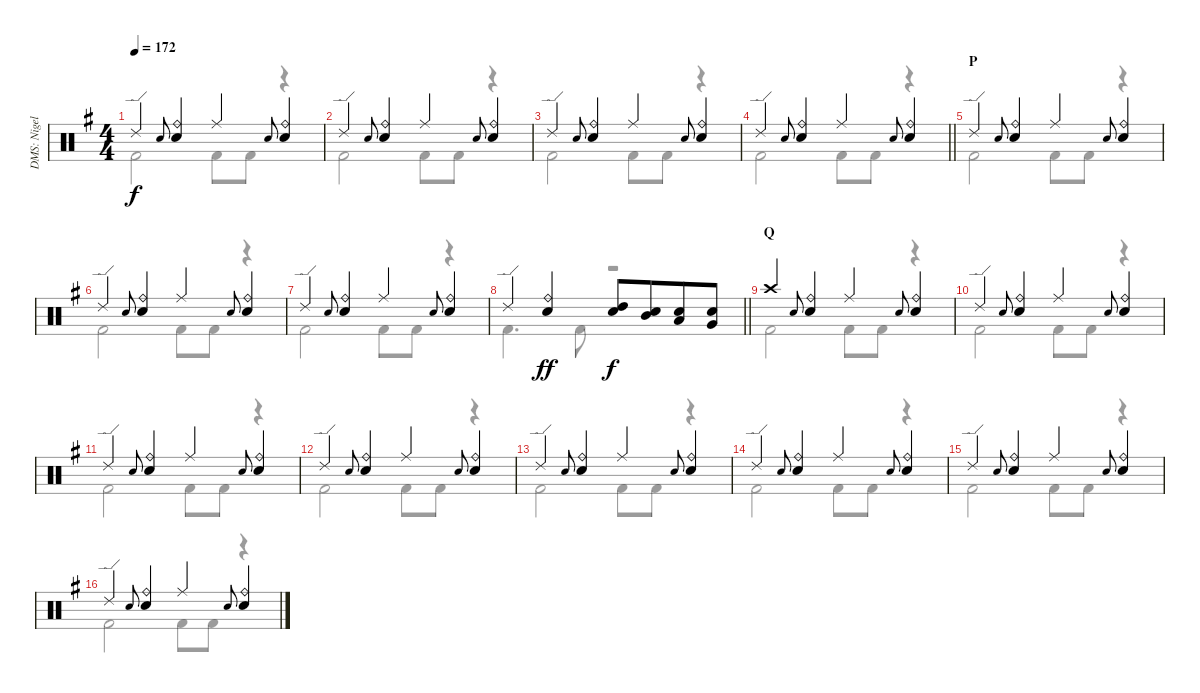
\track ("DMS: Nigel Olsson" "DMS: Nigel") {instrument percussion}
\staff {score}
\articulation defaults
\voice
\ts (4 4)
\tempo 172
\clef neutral
\ks g "Ride (edge) 2".4{dy f} "Snare (hit) 2".8{gr onbeat}
("Ride (bell)" "Electric Snare (hit)").4 "Ride (middle)".4 "Snare (hit) 2".8{gr onbeat} ("Ride (bell)" "Electric Snare (hit)").4 |
"Ride (edge) 2".4 "Snare (hit) 2".8{gr onbeat} ("Ride (bell)" "Electric Snare (hit)").4 "Ride (middle)".4 "Snare (hit) 2".8{gr onbeat} ("Ride (bell)" "Electric Snare (hit)").4 |
"Ride (edge) 2".4 "Snare (hit) 2".8{gr onbeat} ("Ride (bell)" "Electric Snare (hit)").4 "Ride (middle)".4 "Snare (hit) 2".8{gr onbeat} ("Ride (bell)" "Electric Snare (hit)").4 |
\barLineRight lightlight "Ride (edge) 2".4 "Snare (hit) 2".8{gr onbeat}
("Ride (bell)" "Electric Snare (hit)").4 "Ride (middle)".4 "Snare (hit) 2".8{gr onbeat} ("Ride (bell)" "Electric Snare (hit)").4 |
\section ("" "P")
"Ride (edge) 2".4 "Snare (hit) 2".8{gr onbeat} ("Ride (bell)" "Electric Snare (hit)").4 "Ride (middle)".4 "Snare (hit) 2".8{gr onbeat} ("Ride (bell)" "Electric Snare (hit)").4 |
"Ride (edge) 2".4 "Snare (hit) 2".8{gr onbeat} ("Ride (bell)" "Electric Snare (hit)").4 "Ride (middle)".4 "Snare (hit) 2".8{gr onbeat} ("Ride (bell)" "Electric Snare (hit)").4 |
"Ride (edge) 2".4 "Snare (hit) 2".8{gr onbeat} ("Ride (bell)" "Electric Snare (hit)").4 "Ride (middle)".4 "Snare (hit) 2".8{gr onbeat} ("Ride (bell)" "Electric Snare (hit)").4 |
\barLineRight lightlight "Ride (edge) 2".4
("Ride (bell)" "Electric Snare (hit)").4{dy ff} ("Electric Snare (hit)" "High Tom (hit)").8{dy f} ("Electric Snare (hit)" "Mid Tom (hit)").8{beam merge} ("Electric Snare (hit)" "Low Tom (hit)").8 ("Electric Snare (hit)" "Very Low Tom (hit)").8 |
\section ("" "Q")
"Crash high (hit)".4 "Snare (hit) 2".8{gr onbeat} ("Ride (bell)" "Electric Snare (hit)").4 "Ride (middle)".4 "Snare (hit) 2".8{gr onbeat} ("Ride (bell)" "Electric Snare (hit)").4 |
"Ride (edge) 2".4 "Snare (hit) 2".8{gr onbeat} ("Ride (bell)" "Electric Snare (hit)").4 "Ride (middle)".4 "Snare (hit) 2".8{gr onbeat} ("Ride (bell)" "Electric Snare (hit)").4 |
"Ride (edge) 2".4 "Snare (hit) 2".8{gr onbeat} ("Ride (bell)" "Electric Snare (hit)").4 "Ride (middle)".4 "Snare (hit) 2".8{gr onbeat} ("Ride (bell)" "Electric Snare (hit)").4 |
"Ride (edge) 2".4 "Snare (hit) 2".8{gr onbeat} ("Ride (bell)" "Electric Snare (hit)").4 "Ride (middle)".4 "Snare (hit) 2".8{gr onbeat} ("Ride (bell)" "Electric Snare (hit)").4 |
"Ride (edge) 2".4 "Snare (hit) 2".8{gr onbeat} ("Ride (bell)" "Electric Snare (hit)").4 "Ride (middle)".4 "Snare (hit) 2".8{gr onbeat} ("Ride (bell)" "Electric Snare (hit)").4 |
"Ride (edge) 2".4 "Snare (hit) 2".8{gr onbeat} ("Ride (bell)" "Electric Snare (hit)").4 "Ride (middle)".4 "Snare (hit) 2".8{gr onbeat} ("Ride (bell)" "Electric Snare (hit)").4 |
"Ride (edge) 2".4 "Snare (hit) 2".8{gr onbeat} ("Ride (bell)" "Electric Snare (hit)").4 "Ride (middle)".4 "Snare (hit) 2".8{gr onbeat} ("Ride (bell)" "Electric Snare (hit)").4 |
"Ride (edge) 2".4 "Snare (hit) 2".8{gr onbeat} ("Ride (bell)" "Electric Snare (hit)").4 "Ride (middle)".4 "Snare (hit) 2".8{gr onbeat} ("Ride (bell)" "Electric Snare (hit)").4
\voice
\clef neutral
\ottava regular
\simile none
\ks g "Kick (hit) 2".2{dy f} "Kick (hit) 2".8 "Kick (hit) 2".8
r.4 |
"Kick (hit) 2".2 "Kick (hit) 2".8 "Kick (hit) 2".8 r.4 |
"Kick (hit) 2".2 "Kick (hit) 2".8 "Kick (hit) 2".8 r.4 |
\barLineRight lightlight "Kick (hit) 2".2 "Kick (hit) 2".8 "Kick (hit) 2".8
r.4 |
"Kick (hit) 2".2 "Kick (hit) 2".8 "Kick (hit) 2".8 r.4 |
"Kick (hit) 2".2 "Kick (hit) 2".8 "Kick (hit) 2".8 r.4 |
"Kick (hit) 2".2 "Kick (hit) 2".8 "Kick (hit) 2".8 r.4 |
\barLineRight lightlight "Kick (hit) 2".4{d} "Kick (hit) 2".8
r.2 |
"Kick (hit) 2".2 "Kick (hit) 2".8 "Kick (hit) 2".8 r.4 |
"Kick (hit) 2".2 "Kick (hit) 2".8 "Kick (hit) 2".8 r.4 |
"Kick (hit) 2".2 "Kick (hit) 2".8 "Kick (hit) 2".8 r.4 |
"Kick (hit) 2".2 "Kick (hit) 2".8 "Kick (hit) 2".8 r.4 |
"Kick (hit) 2".2 "Kick (hit) 2".8 "Kick (hit) 2".8 r.4 |
"Kick (hit) 2".2 "Kick (hit) 2".8 "Kick (hit) 2".8 r.4 |
"Kick (hit) 2".2 "Kick (hit) 2".8 "Kick (hit) 2".8 r.4 |
"Kick (hit) 2".2 "Kick (hit) 2".8 "Kick (hit) 2".8 r.4
